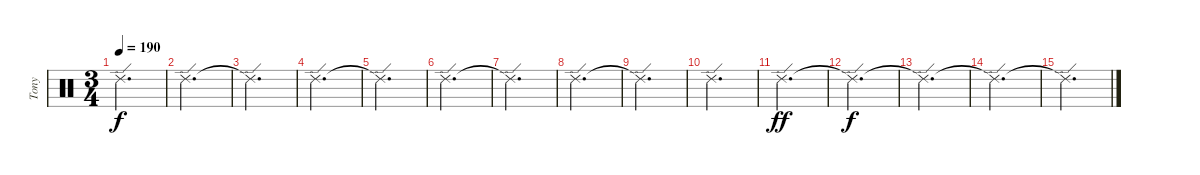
\track ("Tony" "Tony") {instrument percussion}
\staff {score}
\articulation defaults
\ts (3 4)
\tempo 190
\clef neutral
\ks c "Ride (edge) 2"{t}.2{d dy f}
|
"Ride (edge) 2".2{d} |
"Ride (edge) 2"{t}.2{d} |
"Ride (edge) 2".2{d} |
"Ride (edge) 2"{t}.2{d} |
"Ride (edge) 2".2{d} |
"Ride (edge) 2"{t}.2{d} |
"Ride (edge) 2".2{d} |
"Ride (edge) 2"{t}.2{d} |
"Ride (edge) 2".2{d} |
"Ride (edge) 2".2{d dy ff} |
"Ride (edge) 2"{t}.2{d dy f} |
"Ride (edge) 2"{t}.2{d} |
"Ride (edge) 2"{t}.2{d} |
"Ride (edge) 2"{t}.2{d}
